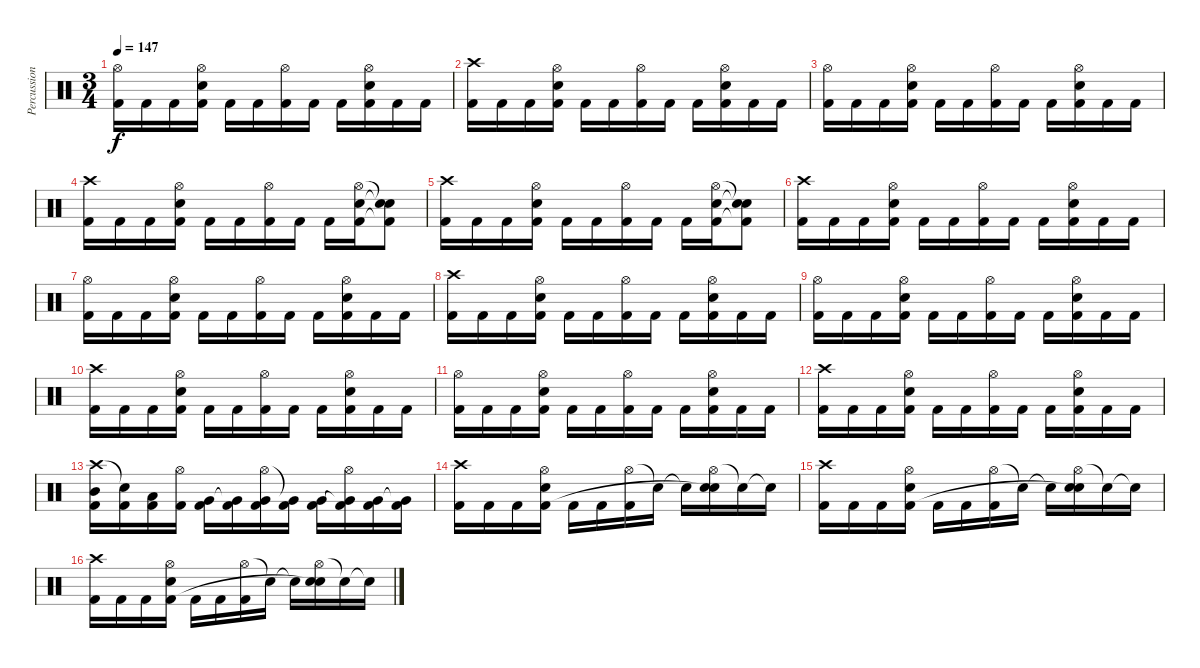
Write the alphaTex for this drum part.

\track ("Percussion" "Percussion") {instrument percussion}
\staff {score}
\articulation defaults
\ts (3 4)
\tempo 147
\clef neutral
\ks c
("Hi-Hat (open)" "Kick (hit) 2").16{dy f} "Kick (hit) 2".16 "Kick (hit) 2".16 ("Hi-Hat (open)" "Electric Snare (hit)" "Kick (hit) 2").16 "Kick (hit) 2".16 "Kick (hit) 2".16 ("Hi-Hat (open)" "Kick (hit) 2").16 "Kick (hit) 2".16 "Kick (hit) 2".16 ("Hi-Hat (open)" "Electric Snare (hit)" "Kick (hit) 2").16 "Kick (hit) 2".16 "Kick (hit) 2".16 |
("Crash high (hit)" "Kick (hit) 2").16 "Kick (hit) 2".16 "Kick (hit) 2".16 ("Hi-Hat (open)" "Electric Snare (hit)" "Kick (hit) 2").16 "Kick (hit) 2".16 "Kick (hit) 2".16 ("Hi-Hat (open)" "Kick (hit) 2").16 "Kick (hit) 2".16 "Kick (hit) 2".16 ("Hi-Hat (open)" "Electric Snare (hit)" "Kick (hit) 2").16 "Kick (hit) 2".16 "Kick (hit) 2".16 |
("Hi-Hat (open)" "Kick (hit) 2").16 "Kick (hit) 2".16 "Kick (hit) 2".16 ("Hi-Hat (open)" "Electric Snare (hit)" "Kick (hit) 2").16 "Kick (hit) 2".16 "Kick (hit) 2".16 ("Hi-Hat (open)" "Kick (hit) 2").16 "Kick (hit) 2".16 "Kick (hit) 2".16 ("Hi-Hat (open)" "Electric Snare (hit)" "Kick (hit) 2").16 "Kick (hit) 2".16 "Kick (hit) 2".16 |
("Crash high (hit)" "Kick (hit) 2").16 "Kick (hit) 2".16 "Kick (hit) 2".16 ("Hi-Hat (open)" "Electric Snare (hit)" "Kick (hit) 2").16 "Kick (hit) 2".16 "Kick (hit) 2".16 ("Hi-Hat (open)" "Kick (hit) 2").16 "Kick (hit) 2".16 "Kick (hit) 2".16 ("Hi-Hat (open)" "Electric Snare (hit)" "Kick (hit) 2").16 ("Snare (hit)"{t} "Snare (hit)"{t} "Kick (hit) 2"{t}).8 |
("Crash high (hit)" "Kick (hit) 2").16 "Kick (hit) 2".16 "Kick (hit) 2".16 ("Hi-Hat (open)" "Electric Snare (hit)" "Kick (hit) 2").16 "Kick (hit) 2".16 "Kick (hit) 2".16 ("Hi-Hat (open)" "Kick (hit) 2").16 "Kick (hit) 2".16 "Kick (hit) 2".16 ("Hi-Hat (open)" "Electric Snare (hit)" "Kick (hit) 2").16 ("Snare (hit)"{t} "Snare (hit)"{t} "Kick (hit) 2"{t}).8 |
("Crash high (hit)" "Kick (hit) 2").16 "Kick (hit) 2".16 "Kick (hit) 2".16 ("Hi-Hat (open)" "Electric Snare (hit)" "Kick (hit) 2").16 "Kick (hit) 2".16 "Kick (hit) 2".16 ("Hi-Hat (open)" "Kick (hit) 2").16 "Kick (hit) 2".16 "Kick (hit) 2".16 ("Hi-Hat (open)" "Electric Snare (hit)" "Kick (hit) 2").16 "Kick (hit) 2".16 "Kick (hit) 2".16 |
("Hi-Hat (open)" "Kick (hit) 2").16 "Kick (hit) 2".16 "Kick (hit) 2".16 ("Hi-Hat (open)" "Electric Snare (hit)" "Kick (hit) 2").16 "Kick (hit) 2".16 "Kick (hit) 2".16 ("Hi-Hat (open)" "Kick (hit) 2").16 "Kick (hit) 2".16 "Kick (hit) 2".16 ("Hi-Hat (open)" "Electric Snare (hit)" "Kick (hit) 2").16 "Kick (hit) 2".16 "Kick (hit) 2".16 |
("Crash high (hit)" "Kick (hit) 2").16 "Kick (hit) 2".16 "Kick (hit) 2".16 ("Hi-Hat (open)" "Electric Snare (hit)" "Kick (hit) 2").16 "Kick (hit) 2".16 "Kick (hit) 2".16 ("Hi-Hat (open)" "Kick (hit) 2").16 "Kick (hit) 2".16 "Kick (hit) 2".16 ("Hi-Hat (open)" "Electric Snare (hit)" "Kick (hit) 2").16 "Kick (hit) 2".16 "Kick (hit) 2".16 |
("Hi-Hat (open)" "Kick (hit) 2").16 "Kick (hit) 2".16 "Kick (hit) 2".16 ("Hi-Hat (open)" "Electric Snare (hit)" "Kick (hit) 2").16 "Kick (hit) 2".16 "Kick (hit) 2".16 ("Hi-Hat (open)" "Kick (hit) 2").16 "Kick (hit) 2".16 "Kick (hit) 2".16 ("Hi-Hat (open)" "Electric Snare (hit)" "Kick (hit) 2").16 "Kick (hit) 2".16 "Kick (hit) 2".16 |
("Crash high (hit)" "Kick (hit) 2").16 "Kick (hit) 2".16 "Kick (hit) 2".16 ("Hi-Hat (open)" "Electric Snare (hit)" "Kick (hit) 2").16 "Kick (hit) 2".16 "Kick (hit) 2".16 ("Hi-Hat (open)" "Kick (hit) 2").16 "Kick (hit) 2".16 "Kick (hit) 2".16 ("Hi-Hat (open)" "Electric Snare (hit)" "Kick (hit) 2").16 "Kick (hit) 2".16 "Kick (hit) 2".16 |
("Hi-Hat (open)" "Kick (hit) 2").16 "Kick (hit) 2".16 "Kick (hit) 2".16 ("Hi-Hat (open)" "Electric Snare (hit)" "Kick (hit) 2").16 "Kick (hit) 2".16 "Kick (hit) 2".16 ("Hi-Hat (open)" "Kick (hit) 2").16 "Kick (hit) 2".16 "Kick (hit) 2".16 ("Hi-Hat (open)" "Electric Snare (hit)" "Kick (hit) 2").16 "Kick (hit) 2".16 "Kick (hit) 2".16 |
("Crash high (hit)" "Kick (hit) 2").16 "Kick (hit) 2".16 "Kick (hit) 2".16 ("Hi-Hat (open)" "Electric Snare (hit)" "Kick (hit) 2").16 "Kick (hit) 2".16 "Kick (hit) 2".16 ("Hi-Hat (open)" "Kick (hit) 2").16 "Kick (hit) 2".16 "Kick (hit) 2".16 ("Hi-Hat (open)" "Electric Snare (hit)" "Kick (hit) 2").16 "Kick (hit) 2".16 "Kick (hit) 2".16 |
("Crash high (hit)" "Mid Tom (hit)" "Kick (hit) 2").16 ("Snare (hit)"{t} "Kick (hit) 2").16 ("Low Tom (hit)" "Kick (hit) 2").16 ("Hi-Hat (open)" "Kick (hit) 2").16 ("Very Low Tom (hit)" "Kick (hit) 2").16 ("Very Low Tom (hit)"{t} "Kick (hit) 2").16 ("Hi-Hat (open)" "Very Low Tom (hit)" "Kick (hit) 2").16 ("Very Low Tom (hit)"{t} "Kick (hit) 2").16 ("Very Low Tom (hit)" "Kick (hit) 2").16 ("Hi-Hat (open)" "Very Low Tom (hit)"{t} "Kick (hit) 2").16 ("Very Low Tom (hit)" "Kick (hit) 2").16 ("Very Low Tom (hit)"{t} "Kick (hit) 2").16 |
("Crash high (hit)" "Kick (hit) 2").16 "Kick (hit) 2".16 "Kick (hit) 2".16 ("Hi-Hat (open)" "Electric Snare (hit)" "Kick (hit) 2").16 "Kick (hit) 2".16 "Kick (hit) 2".16 ("Hi-Hat (open)" "Kick (hit) 2").16 "Snare (hit)"{t}.16 "Snare (hit)"{t}.16 ("Hi-Hat (open)" "Electric Snare (hit)" "Snare (hit)"{t}).16 "Electric Snare (hit)"{t}.16 "Snare (hit)"{t}.16 |
("Crash high (hit)" "Kick (hit) 2").16 "Kick (hit) 2".16 "Kick (hit) 2".16 ("Hi-Hat (open)" "Electric Snare (hit)" "Kick (hit) 2").16 "Kick (hit) 2".16 "Kick (hit) 2".16 ("Hi-Hat (open)" "Kick (hit) 2").16 "Snare (hit)"{t}.16 "Snare (hit)"{t}.16 ("Hi-Hat (open)" "Electric Snare (hit)" "Snare (hit)"{t}).16 "Electric Snare (hit)"{t}.16 "Snare (hit)"{t}.16 |
("Crash high (hit)" "Kick (hit) 2").16 "Kick (hit) 2".16 "Kick (hit) 2".16 ("Hi-Hat (open)" "Electric Snare (hit)" "Kick (hit) 2").16 "Kick (hit) 2".16 "Kick (hit) 2".16 ("Hi-Hat (open)" "Kick (hit) 2").16 "Snare (hit)"{t}.16 "Snare (hit)"{t}.16 ("Hi-Hat (open)" "Electric Snare (hit)" "Snare (hit)"{t}).16 "Electric Snare (hit)"{t}.16 "Snare (hit)"{t}.16
